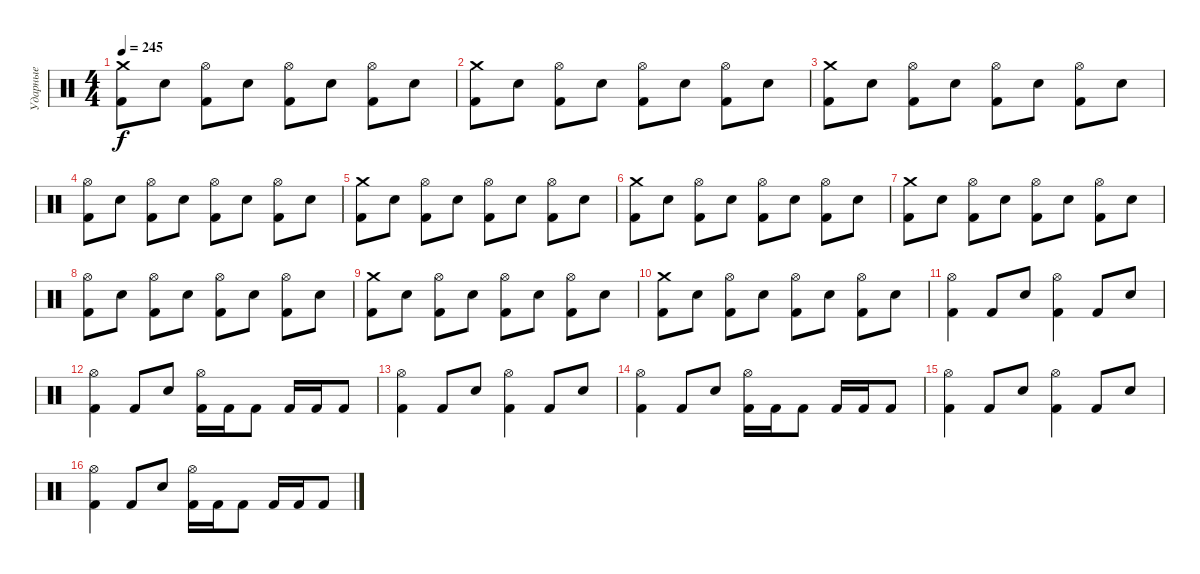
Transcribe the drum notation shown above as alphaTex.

\track ("Ударные" "Ударные") {instrument percussion}
\staff {score}
\articulation defaults
\ts (4 4)
\tempo 245
\clef neutral
\ks c
("Crash medium (hit)" "Kick (hit) 2").8{dy f} "Snare (hit) 2".8 ("Hi-Hat (open)" "Kick (hit) 2").8 "Snare (hit) 2".8 ("Hi-Hat (open)" "Kick (hit) 2").8 "Snare (hit) 2".8 ("Hi-Hat (open)" "Kick (hit) 2").8 "Snare (hit) 2".8 |
("Crash medium (hit)" "Kick (hit) 2").8 "Snare (hit) 2".8 ("Hi-Hat (open)" "Kick (hit) 2").8 "Snare (hit) 2".8 ("Hi-Hat (open)" "Kick (hit) 2").8 "Snare (hit) 2".8 ("Hi-Hat (open)" "Kick (hit) 2").8 "Snare (hit) 2".8 |
("Crash medium (hit)" "Kick (hit) 2").8 "Snare (hit) 2".8 ("Hi-Hat (open)" "Kick (hit) 2").8 "Snare (hit) 2".8 ("Hi-Hat (open)" "Kick (hit) 2").8 "Snare (hit) 2".8 ("Hi-Hat (open)" "Kick (hit) 2").8 "Snare (hit) 2".8 |
("Hi-Hat (open)" "Kick (hit) 2").8 "Snare (hit) 2".8 ("Hi-Hat (open)" "Kick (hit) 2").8 "Snare (hit) 2".8 ("Hi-Hat (open)" "Kick (hit) 2").8 "Snare (hit) 2".8 ("Hi-Hat (open)" "Kick (hit) 2").8 "Snare (hit) 2".8 |
("Crash medium (hit)" "Kick (hit) 2").8 "Snare (hit) 2".8 ("Hi-Hat (open)" "Kick (hit) 2").8 "Snare (hit) 2".8 ("Hi-Hat (open)" "Kick (hit) 2").8 "Snare (hit) 2".8 ("Hi-Hat (open)" "Kick (hit) 2").8 "Snare (hit) 2".8 |
("Crash medium (hit)" "Kick (hit) 2").8 "Snare (hit) 2".8 ("Hi-Hat (open)" "Kick (hit) 2").8 "Snare (hit) 2".8 ("Hi-Hat (open)" "Kick (hit) 2").8 "Snare (hit) 2".8 ("Hi-Hat (open)" "Kick (hit) 2").8 "Snare (hit) 2".8 |
("Crash medium (hit)" "Kick (hit) 2").8 "Snare (hit) 2".8 ("Hi-Hat (open)" "Kick (hit) 2").8 "Snare (hit) 2".8 ("Hi-Hat (open)" "Kick (hit) 2").8 "Snare (hit) 2".8 ("Hi-Hat (open)" "Kick (hit) 2").8 "Snare (hit) 2".8 |
("Hi-Hat (open)" "Kick (hit) 2").8 "Snare (hit) 2".8 ("Hi-Hat (open)" "Kick (hit) 2").8 "Snare (hit) 2".8 ("Hi-Hat (open)" "Kick (hit) 2").8 "Snare (hit) 2".8 ("Hi-Hat (open)" "Kick (hit) 2").8 "Snare (hit) 2".8 |
("Crash medium (hit)" "Kick (hit) 2").8 "Snare (hit) 2".8 ("Hi-Hat (open)" "Kick (hit) 2").8 "Snare (hit) 2".8 ("Hi-Hat (open)" "Kick (hit) 2").8 "Snare (hit) 2".8 ("Hi-Hat (open)" "Kick (hit) 2").8 "Snare (hit) 2".8 |
("Crash medium (hit)" "Kick (hit) 2").8 "Snare (hit) 2".8 ("Hi-Hat (open)" "Kick (hit) 2").8 "Snare (hit) 2".8 ("Hi-Hat (open)" "Kick (hit) 2").8 "Snare (hit) 2".8 ("Hi-Hat (open)" "Kick (hit) 2").8 "Snare (hit) 2".8 |
("Hi-Hat (open)" "Kick (hit) 2").4 "Kick (hit) 2".8 "Snare (hit) 2".8 ("Hi-Hat (open)" "Kick (hit) 2").4 "Kick (hit) 2".8 "Snare (hit) 2".8 |
("Hi-Hat (open)" "Kick (hit) 2").4 "Kick (hit) 2".8 "Snare (hit) 2".8 ("Hi-Hat (open)" "Kick (hit) 2").16 "Kick (hit) 2".16 "Kick (hit) 2".8 "Kick (hit) 2".16 "Kick (hit) 2".16 "Kick (hit) 2".8 |
("Hi-Hat (open)" "Kick (hit) 2").4 "Kick (hit) 2".8 "Snare (hit) 2".8 ("Hi-Hat (open)" "Kick (hit) 2").4 "Kick (hit) 2".8 "Snare (hit) 2".8 |
("Hi-Hat (open)" "Kick (hit) 2").4 "Kick (hit) 2".8 "Snare (hit) 2".8 ("Hi-Hat (open)" "Kick (hit) 2").16 "Kick (hit) 2".16 "Kick (hit) 2".8 "Kick (hit) 2".16 "Kick (hit) 2".16 "Kick (hit) 2".8 |
("Hi-Hat (open)" "Kick (hit) 2").4 "Kick (hit) 2".8 "Snare (hit) 2".8 ("Hi-Hat (open)" "Kick (hit) 2").4 "Kick (hit) 2".8 "Snare (hit) 2".8 |
("Hi-Hat (open)" "Kick (hit) 2").4 "Kick (hit) 2".8 "Snare (hit) 2".8 ("Hi-Hat (open)" "Kick (hit) 2").16 "Kick (hit) 2".16 "Kick (hit) 2".8 "Kick (hit) 2".16 "Kick (hit) 2".16 "Kick (hit) 2".8
